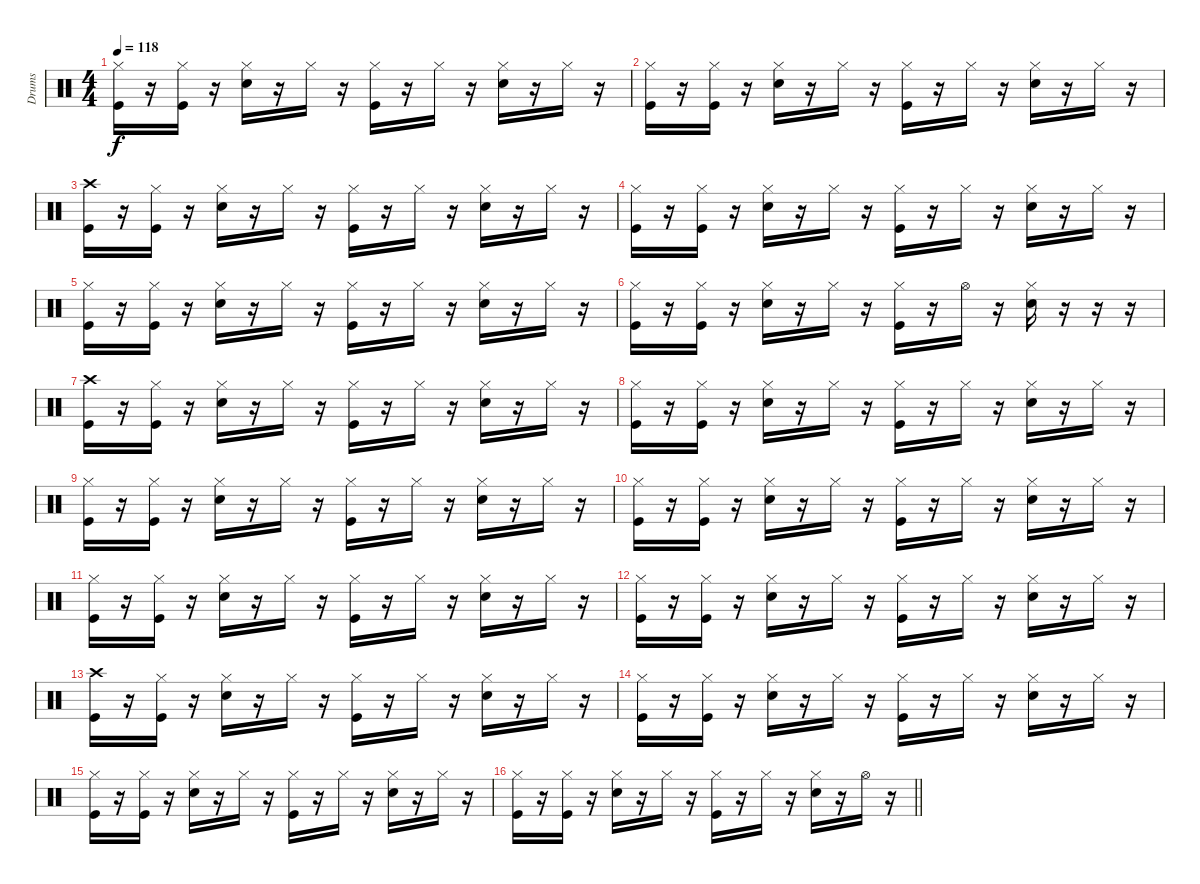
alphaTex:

\track ("Drums" "Drums") {instrument percussion}
\staff {score}
\articulation defaults
\ts (4 4)
\tempo 118
\clef neutral
\ks c
("Hi-Hat (closed)" "Kick (hit)").16{dy f} r.16 ("Hi-Hat (closed)" "Kick (hit)").16 r.16 ("Hi-Hat (closed)" "Snare (hit) 2").16 r.16 "Hi-Hat (closed)".16 r.16 ("Hi-Hat (closed)" "Kick (hit)").16 r.16 "Hi-Hat (closed)".16 r.16 ("Hi-Hat (closed)" "Snare (hit) 2").16 r.16 "Hi-Hat (closed)".16 r.16 |
("Hi-Hat (closed)" "Kick (hit)").16 r.16 ("Hi-Hat (closed)" "Kick (hit)").16 r.16 ("Hi-Hat (closed)" "Snare (hit) 2").16 r.16 "Hi-Hat (closed)".16 r.16 ("Hi-Hat (closed)" "Kick (hit)").16 r.16 "Hi-Hat (closed)".16 r.16 ("Hi-Hat (closed)" "Snare (hit) 2").16 r.16 "Hi-Hat (closed)".16 r.16 |
("Crash high (hit)" "Kick (hit)").16 r.16 ("Hi-Hat (closed)" "Kick (hit)").16 r.16 ("Hi-Hat (closed)" "Snare (hit) 2").16 r.16 "Hi-Hat (closed)".16 r.16 ("Hi-Hat (closed)" "Kick (hit)").16 r.16 "Hi-Hat (closed)".16 r.16 ("Hi-Hat (closed)" "Snare (hit) 2").16 r.16 "Hi-Hat (closed)".16 r.16 |
("Hi-Hat (closed)" "Kick (hit)").16 r.16 ("Hi-Hat (closed)" "Kick (hit)").16 r.16 ("Hi-Hat (closed)" "Snare (hit) 2").16 r.16 "Hi-Hat (closed)".16 r.16 ("Hi-Hat (closed)" "Kick (hit)").16 r.16 "Hi-Hat (closed)".16 r.16 ("Hi-Hat (closed)" "Snare (hit) 2").16 r.16 "Hi-Hat (closed)".16 r.16 |
("Hi-Hat (closed)" "Kick (hit)").16 r.16 ("Hi-Hat (closed)" "Kick (hit)").16 r.16 ("Hi-Hat (closed)" "Snare (hit) 2").16 r.16 "Hi-Hat (closed)".16 r.16 ("Hi-Hat (closed)" "Kick (hit)").16 r.16 "Hi-Hat (closed)".16 r.16 ("Hi-Hat (closed)" "Snare (hit) 2").16 r.16 "Hi-Hat (closed)".16 r.16 |
("Hi-Hat (closed)" "Kick (hit)").16 r.16 ("Hi-Hat (closed)" "Kick (hit)").16 r.16 ("Hi-Hat (closed)" "Snare (hit) 2").16 r.16 "Hi-Hat (closed)".16 r.16 ("Hi-Hat (closed)" "Kick (hit)").16 r.16 "Hi-Hat (open)".16 r.16 ("Hi-Hat (closed)" "Snare (hit) 2").16 r.16 r.16 r.16 |
("Crash high (hit)" "Kick (hit)").16 r.16 ("Hi-Hat (closed)" "Kick (hit)").16 r.16 ("Hi-Hat (closed)" "Snare (hit) 2").16 r.16 "Hi-Hat (closed)".16 r.16 ("Hi-Hat (closed)" "Kick (hit)").16 r.16 "Hi-Hat (closed)".16 r.16 ("Hi-Hat (closed)" "Snare (hit) 2").16 r.16 "Hi-Hat (closed)".16 r.16 |
("Hi-Hat (closed)" "Kick (hit)").16 r.16 ("Hi-Hat (closed)" "Kick (hit)").16 r.16 ("Hi-Hat (closed)" "Snare (hit) 2").16 r.16 "Hi-Hat (closed)".16 r.16 ("Hi-Hat (closed)" "Kick (hit)").16 r.16 "Hi-Hat (closed)".16 r.16 ("Hi-Hat (closed)" "Snare (hit) 2").16 r.16 "Hi-Hat (closed)".16 r.16 |
("Hi-Hat (closed)" "Kick (hit)").16 r.16 ("Hi-Hat (closed)" "Kick (hit)").16 r.16 ("Hi-Hat (closed)" "Snare (hit) 2").16 r.16 "Hi-Hat (closed)".16 r.16 ("Hi-Hat (closed)" "Kick (hit)").16 r.16 "Hi-Hat (closed)".16 r.16 ("Hi-Hat (closed)" "Snare (hit) 2").16 r.16 "Hi-Hat (closed)".16 r.16 |
("Hi-Hat (closed)" "Kick (hit)").16 r.16 ("Hi-Hat (closed)" "Kick (hit)").16 r.16 ("Hi-Hat (closed)" "Snare (hit) 2").16 r.16 "Hi-Hat (closed)".16 r.16 ("Hi-Hat (closed)" "Kick (hit)").16 r.16 "Hi-Hat (closed)".16 r.16 ("Hi-Hat (closed)" "Snare (hit) 2").16 r.16 "Hi-Hat (closed)".16 r.16 |
("Hi-Hat (closed)" "Kick (hit)").16 r.16 ("Hi-Hat (closed)" "Kick (hit)").16 r.16 ("Hi-Hat (closed)" "Snare (hit) 2").16 r.16 "Hi-Hat (closed)".16 r.16 ("Hi-Hat (closed)" "Kick (hit)").16 r.16 "Hi-Hat (closed)".16 r.16 ("Hi-Hat (closed)" "Snare (hit) 2").16 r.16 "Hi-Hat (closed)".16 r.16 |
("Hi-Hat (closed)" "Kick (hit)").16 r.16 ("Hi-Hat (closed)" "Kick (hit)").16 r.16 ("Hi-Hat (closed)" "Snare (hit) 2").16 r.16 "Hi-Hat (closed)".16 r.16 ("Hi-Hat (closed)" "Kick (hit)").16 r.16 "Hi-Hat (closed)".16 r.16 ("Hi-Hat (closed)" "Snare (hit) 2").16 r.16 "Hi-Hat (closed)".16 r.16 |
("Crash high (hit)" "Kick (hit)").16 r.16 ("Hi-Hat (closed)" "Kick (hit)").16 r.16 ("Hi-Hat (closed)" "Snare (hit) 2").16 r.16 "Hi-Hat (closed)".16 r.16 ("Hi-Hat (closed)" "Kick (hit)").16 r.16 "Hi-Hat (closed)".16 r.16 ("Hi-Hat (closed)" "Snare (hit) 2").16 r.16 "Hi-Hat (closed)".16 r.16 |
("Hi-Hat (closed)" "Kick (hit)").16 r.16 ("Hi-Hat (closed)" "Kick (hit)").16 r.16 ("Hi-Hat (closed)" "Snare (hit) 2").16 r.16 "Hi-Hat (closed)".16 r.16 ("Hi-Hat (closed)" "Kick (hit)").16 r.16 "Hi-Hat (closed)".16 r.16 ("Hi-Hat (closed)" "Snare (hit) 2").16 r.16 "Hi-Hat (closed)".16 r.16 |
("Hi-Hat (closed)" "Kick (hit)").16 r.16 ("Hi-Hat (closed)" "Kick (hit)").16 r.16 ("Hi-Hat (closed)" "Snare (hit) 2").16 r.16 "Hi-Hat (closed)".16 r.16 ("Hi-Hat (closed)" "Kick (hit)").16 r.16 "Hi-Hat (closed)".16 r.16 ("Hi-Hat (closed)" "Snare (hit) 2").16 r.16 "Hi-Hat (closed)".16 r.16 |
\barLineRight lightlight
("Hi-Hat (closed)" "Kick (hit)").16 r.16 ("Hi-Hat (closed)" "Kick (hit)").16 r.16 ("Hi-Hat (closed)" "Snare (hit) 2").16 r.16 "Hi-Hat (closed)".16 r.16 ("Hi-Hat (closed)" "Kick (hit)").16 r.16 "Hi-Hat (closed)".16 r.16 ("Hi-Hat (closed)" "Snare (hit) 2").16 r.16 "Hi-Hat (open)".16 r.16
